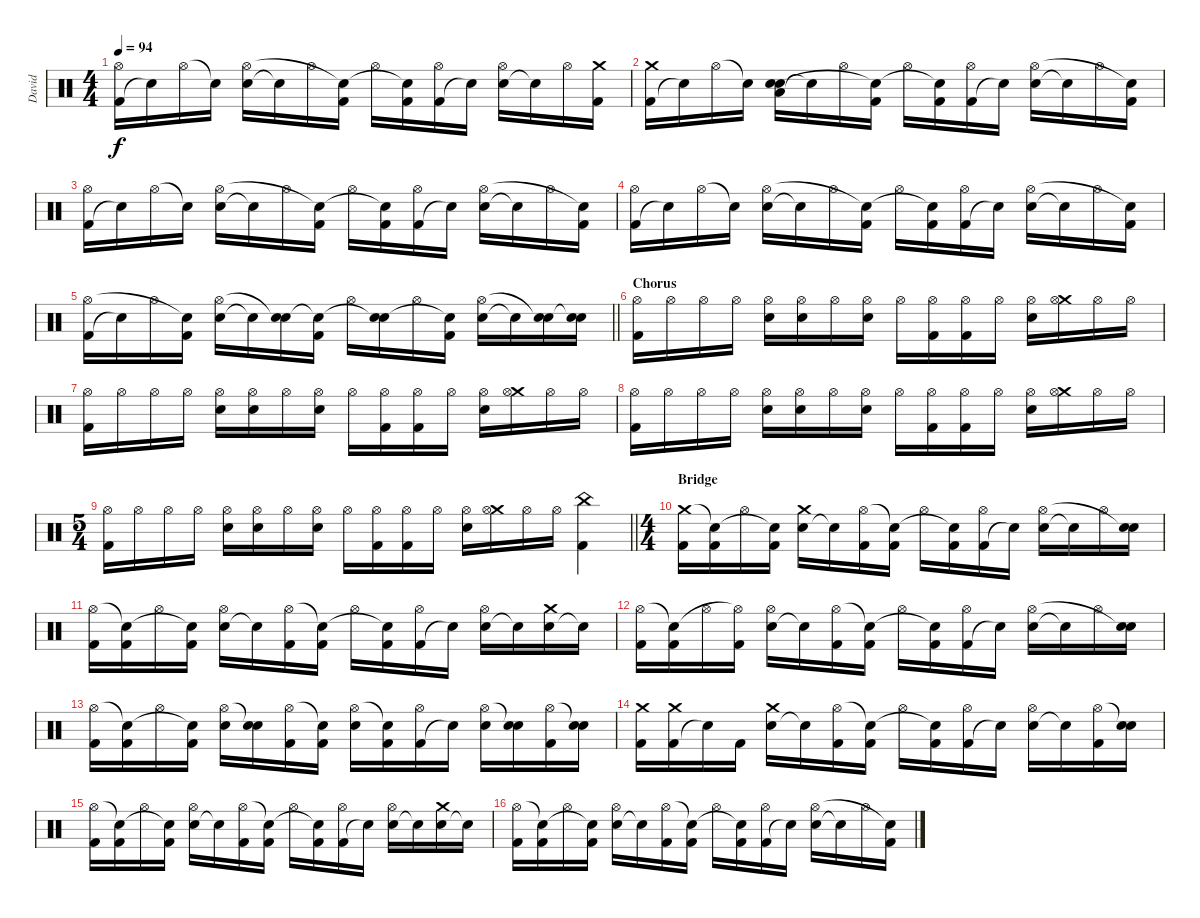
\track ("David" "David") {instrument percussion}
\staff {score}
\articulation defaults
\ts (4 4)
\tempo 94
\clef neutral
\ks c
("Kick (hit) 2" "Hi-Hat (open)").16{dy f} "Snare (hit)"{t}.16 "Hi-Hat (open)".16 "Snare (hit)"{t}.16 ("Electric Snare (hit)" "Hi-Hat (open)").16 "Snare (hit)"{t}.16 "Hi-Hat (open)".16 ("Kick (hit) 2" "Snare (hit)"{t}).16 "Hi-Hat (open)".16 ("Kick (hit) 2" "Snare (hit)"{t}).16 ("Kick (hit) 2" "Hi-Hat (open)").16 "Snare (hit)"{t}.16 ("Electric Snare (hit)" "Hi-Hat (open)").16 "Snare (hit)"{t}.16 "Hi-Hat (open)".16 ("Kick (hit) 2" "Crash medium (hit)").16 |
("Kick (hit) 2" "Crash medium (hit)").16 "Snare (hit)"{t}.16 "Hi-Hat (open)".16 "Snare (hit)"{t}.16 ("Low Tom (hit)" "Electric Snare (hit)" "Snare (hit)").16 "Snare (hit)"{t}.16 "Hi-Hat (open)".16 ("Kick (hit) 2" "Snare (hit)"{t}).16 "Hi-Hat (open)".16 ("Kick (hit) 2" "Snare (hit)"{t}).16 ("Kick (hit) 2" "Hi-Hat (open)").16 "Snare (hit)"{t}.16 ("Electric Snare (hit)" "Hi-Hat (open)").16 "Snare (hit)"{t}.16 "Hi-Hat (open)".16 ("Kick (hit) 2" "Snare (hit)"{t}).16 |
("Kick (hit) 2" "Hi-Hat (open)").16 "Snare (hit)"{t}.16 "Hi-Hat (open)".16 "Snare (hit)"{t}.16 ("Electric Snare (hit)" "Hi-Hat (open)").16 "Snare (hit)"{t}.16 "Hi-Hat (open)".16 ("Kick (hit) 2" "Snare (hit)"{t}).16 "Hi-Hat (open)".16 ("Kick (hit) 2" "Snare (hit)"{t}).16 ("Kick (hit) 2" "Hi-Hat (open)").16 "Snare (hit)"{t}.16 ("Electric Snare (hit)" "Hi-Hat (open)").16 "Snare (hit)"{t}.16 "Hi-Hat (open)".16 ("Kick (hit) 2" "Snare (hit)"{t}).16 |
("Kick (hit) 2" "Hi-Hat (open)").16 "Snare (hit)"{t}.16 "Hi-Hat (open)".16 "Snare (hit)"{t}.16 ("Electric Snare (hit)" "Hi-Hat (open)").16 "Snare (hit)"{t}.16 "Hi-Hat (open)".16 ("Kick (hit) 2" "Snare (hit)"{t}).16 "Hi-Hat (open)".16 ("Kick (hit) 2" "Snare (hit)"{t}).16 ("Kick (hit) 2" "Hi-Hat (open)").16 "Snare (hit)"{t}.16 ("Electric Snare (hit)" "Hi-Hat (open)").16 "Snare (hit)"{t}.16 "Hi-Hat (open)".16 ("Kick (hit) 2" "Snare (hit)"{t}).16 |
\barLineRight lightlight
("Kick (hit) 2" "Hi-Hat (open)").16 "Snare (hit)"{t}.16 "Hi-Hat (open)".16 ("Kick (hit) 2" "Snare (hit)"{t}).16 ("Electric Snare (hit)" "Hi-Hat (open)").16 "Snare (hit)"{t}.16 ("Electric Snare (hit)" "Snare (hit)"{t}).16 ("Kick (hit) 2" "Snare (hit)"{t}).16 "Hi-Hat (open)".16 ("Electric Snare (hit)" "Snare (hit)"{t}).16 "Hi-Hat (open)".16 ("Kick (hit) 2" "Snare (hit)"{t}).16 ("Electric Snare (hit)" "Hi-Hat (open)").16 "Snare (hit)"{t}.16 ("Electric Snare (hit)" "Snare (hit)"{t}).16 ("Electric Snare (hit)" "Snare (hit)"{t}).16 |
\section ("" "Chorus")
("Kick (hit) 2" "Hi-Hat (open)").16 "Hi-Hat (open)".16 "Hi-Hat (open)".16 "Hi-Hat (open)".16 ("Electric Snare (hit)" "Hi-Hat (open)").16 ("Electric Snare (hit)" "Hi-Hat (open)").16 "Hi-Hat (open)".16 ("Electric Snare (hit)" "Hi-Hat (open)").16 "Hi-Hat (open)".16 ("Kick (hit) 2" "Hi-Hat (open)").16 ("Kick (hit) 2" "Hi-Hat (open)").16 "Hi-Hat (open)".16 ("Electric Snare (hit)" "Hi-Hat (open)").16 ("Crash medium (hit)" "Hi-Hat (open)").16 "Hi-Hat (open)".16 "Hi-Hat (open)".16 |
("Kick (hit) 2" "Hi-Hat (open)").16 "Hi-Hat (open)".16 "Hi-Hat (open)".16 "Hi-Hat (open)".16 ("Electric Snare (hit)" "Hi-Hat (open)").16 ("Electric Snare (hit)" "Hi-Hat (open)").16 "Hi-Hat (open)".16 ("Electric Snare (hit)" "Hi-Hat (open)").16 "Hi-Hat (open)".16 ("Kick (hit) 2" "Hi-Hat (open)").16 ("Kick (hit) 2" "Hi-Hat (open)").16 "Hi-Hat (open)".16 ("Electric Snare (hit)" "Hi-Hat (open)").16 ("Crash medium (hit)" "Hi-Hat (open)").16 "Hi-Hat (open)".16 "Hi-Hat (open)".16 |
("Kick (hit) 2" "Hi-Hat (open)").16 "Hi-Hat (open)".16 "Hi-Hat (open)".16 "Hi-Hat (open)".16 ("Electric Snare (hit)" "Hi-Hat (open)").16 ("Electric Snare (hit)" "Hi-Hat (open)").16 "Hi-Hat (open)".16 ("Electric Snare (hit)" "Hi-Hat (open)").16 "Hi-Hat (open)".16 ("Kick (hit) 2" "Hi-Hat (open)").16 ("Kick (hit) 2" "Hi-Hat (open)").16 "Hi-Hat (open)".16 ("Electric Snare (hit)" "Hi-Hat (open)").16 ("Crash medium (hit)" "Hi-Hat (open)").16 "Hi-Hat (open)".16 "Hi-Hat (open)".16 |
\ts (5 4)
\barLineRight lightlight
("Kick (hit) 2" "Hi-Hat (open)").16 "Hi-Hat (open)".16 "Hi-Hat (open)".16 "Hi-Hat (open)".16 ("Electric Snare (hit)" "Hi-Hat (open)").16 ("Electric Snare (hit)" "Hi-Hat (open)").16 "Hi-Hat (open)".16 ("Electric Snare (hit)" "Hi-Hat (open)").16 "Hi-Hat (open)".16 ("Kick (hit) 2" "Hi-Hat (open)").16 ("Kick (hit) 2" "Hi-Hat (open)").16 "Hi-Hat (open)".16 ("Electric Snare (hit)" "Hi-Hat (open)").16 ("Crash medium (hit)" "Hi-Hat (open)").16 "Hi-Hat (open)".16 "Hi-Hat (open)".16 ("Kick (hit) 2" "China (hit)").4 |
\ts (4 4)
\section ("" "Bridge")
("Kick (hit) 2" "Crash medium (hit)").16 ("Kick (hit) 2" "Snare (hit)"{t}).16 "Hi-Hat (open)".16 ("Kick (hit) 2" "Snare (hit)"{t}).16 ("Electric Snare (hit)" "Crash medium (hit)").16 "Snare (hit)"{t}.16 ("Kick (hit) 2" "Hi-Hat (open)").16 ("Kick (hit) 2" "Snare (hit)"{t}).16 "Hi-Hat (open)".16 ("Kick (hit) 2" "Snare (hit)"{t}).16 ("Kick (hit) 2" "Hi-Hat (open)").16 "Snare (hit)"{t}.16 ("Electric Snare (hit)" "Hi-Hat (open)").16 "Snare (hit)"{t}.16 "Hi-Hat (open)".16 ("Electric Snare (hit)" "Snare (hit)"{t}).16 |
("Kick (hit) 2" "Hi-Hat (open)").16 ("Kick (hit) 2" "Snare (hit)"{t}).16 "Hi-Hat (open)".16 ("Kick (hit) 2" "Snare (hit)"{t}).16 ("Electric Snare (hit)" "Hi-Hat (open)").16 "Snare (hit)"{t}.16 ("Kick (hit) 2" "Hi-Hat (open)").16 ("Kick (hit) 2" "Snare (hit)"{t}).16 "Hi-Hat (open)".16 ("Kick (hit) 2" "Snare (hit)"{t}).16 ("Kick (hit) 2" "Hi-Hat (open)").16 "Snare (hit)"{t}.16 ("Electric Snare (hit)" "Hi-Hat (open)").16 "Snare (hit)"{t}.16 ("Electric Snare (hit)" "Crash medium (hit)").16 "Snare (hit)"{t}.16 |
("Kick (hit) 2" "Hi-Hat (open)").16 ("Kick (hit) 2" "Snare (hit)"{t}).16 "Hi-Hat (open)".16 ("Kick (hit) 2" "Hi-Hat (open)"{t}).16 ("Electric Snare (hit)" "Hi-Hat (open)").16 "Snare (hit)"{t}.16 ("Kick (hit) 2" "Hi-Hat (open)").16 ("Kick (hit) 2" "Snare (hit)"{t}).16 "Hi-Hat (open)".16 ("Kick (hit) 2" "Snare (hit)"{t}).16 ("Kick (hit) 2" "Hi-Hat (open)").16 "Snare (hit)"{t}.16 ("Electric Snare (hit)" "Hi-Hat (open)").16 "Snare (hit)"{t}.16 "Hi-Hat (open)".16 ("Electric Snare (hit)" "Snare (hit)"{t}).16 |
("Kick (hit) 2" "Hi-Hat (open)").16 ("Kick (hit) 2" "Snare (hit)"{t}).16 "Hi-Hat (open)".16 ("Kick (hit) 2" "Snare (hit)"{t}).16 ("Electric Snare (hit)" "Hi-Hat (open)").16 ("Electric Snare (hit)" "Snare (hit)"{t}).16 ("Kick (hit) 2" "Hi-Hat (open)").16 ("Kick (hit) 2" "Snare (hit)"{t}).16 ("Electric Snare (hit)" "Hi-Hat (open)").16 ("Kick (hit) 2" "Snare (hit)"{t}).16 ("Kick (hit) 2" "Hi-Hat (open)").16 "Snare (hit)"{t}.16 ("Electric Snare (hit)" "Hi-Hat (open)").16 ("Electric Snare (hit)" "Snare (hit)"{t}).16 ("Kick (hit) 2" "Hi-Hat (open)").16 ("Electric Snare (hit)" "Snare (hit)"{t}).16 |
("Kick (hit) 2" "Crash medium (hit)").16 ("Kick (hit) 2" "Crash medium (hit)").16 "Snare (hit)"{t}.16 "Kick (hit) 2".16 ("Electric Snare (hit)" "Crash medium (hit)").16 "Snare (hit)"{t}.16 ("Kick (hit) 2" "Hi-Hat (open)").16 ("Kick (hit) 2" "Snare (hit)"{t}).16 "Hi-Hat (open)".16 ("Kick (hit) 2" "Snare (hit)"{t}).16 ("Kick (hit) 2" "Hi-Hat (open)").16 "Snare (hit)"{t}.16 ("Electric Snare (hit)" "Hi-Hat (open)").16 "Snare (hit)"{t}.16 ("Kick (hit) 2" "Hi-Hat (open)").16 ("Electric Snare (hit)" "Snare (hit)"{t}).16 |
("Kick (hit) 2" "Hi-Hat (open)").16 ("Kick (hit) 2" "Snare (hit)"{t}).16 "Hi-Hat (open)".16 ("Kick (hit) 2" "Snare (hit)"{t}).16 ("Electric Snare (hit)" "Hi-Hat (open)").16 "Snare (hit)"{t}.16 ("Kick (hit) 2" "Hi-Hat (open)").16 ("Kick (hit) 2" "Snare (hit)"{t}).16 "Hi-Hat (open)".16 ("Kick (hit) 2" "Snare (hit)"{t}).16 ("Kick (hit) 2" "Hi-Hat (open)").16 "Snare (hit)"{t}.16 ("Electric Snare (hit)" "Hi-Hat (open)").16 "Snare (hit)"{t}.16 ("Electric Snare (hit)" "Crash medium (hit)").16 "Snare (hit)"{t}.16 |
("Kick (hit) 2" "Hi-Hat (open)").16 ("Kick (hit) 2" "Snare (hit)"{t}).16 "Hi-Hat (open)".16 ("Kick (hit) 2" "Snare (hit)"{t}).16 ("Electric Snare (hit)" "Hi-Hat (open)").16 "Snare (hit)"{t}.16 ("Kick (hit) 2" "Hi-Hat (open)").16 ("Kick (hit) 2" "Snare (hit)"{t}).16 "Hi-Hat (open)".16 ("Kick (hit) 2" "Snare (hit)"{t}).16 ("Kick (hit) 2" "Hi-Hat (open)").16 "Snare (hit)"{t}.16 ("Electric Snare (hit)" "Hi-Hat (open)").16 "Snare (hit)"{t}.16 "Hi-Hat (open)".16 ("Kick (hit) 2" "Snare (hit)"{t}).16
